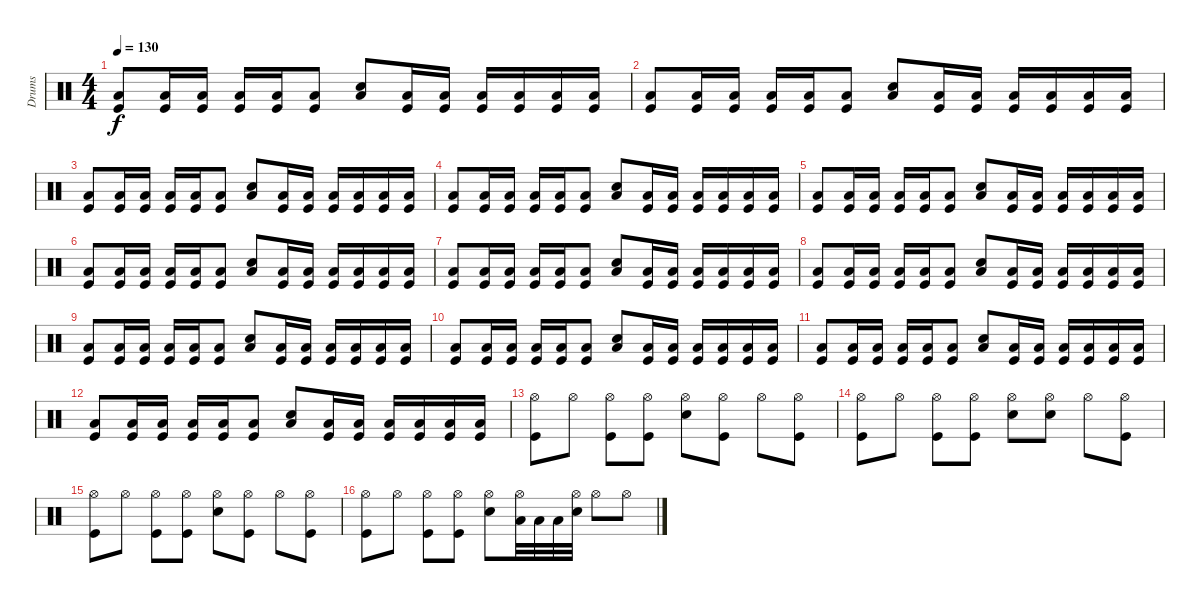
\track ("Drums" "Drums") {instrument percussion}
\staff {score}
\articulation defaults
\ts (4 4)
\tempo 130
\clef neutral
\ks c
("Low Floor Tom (hit)" "Kick (hit)").8{dy f} ("Low Floor Tom (hit)" "Kick (hit)").16 ("Low Floor Tom (hit)" "Kick (hit)").16 ("Low Floor Tom (hit)" "Kick (hit)").16 ("Low Floor Tom (hit)" "Kick (hit)").16 ("Low Floor Tom (hit)" "Kick (hit)").8 ("Low Floor Tom (hit)" "Snare (hit) 2").8 ("Low Floor Tom (hit)" "Kick (hit)").16 ("Low Floor Tom (hit)" "Kick (hit)").16 ("Low Floor Tom (hit)" "Kick (hit)").16 ("Low Floor Tom (hit)" "Kick (hit)").16 ("Low Floor Tom (hit)" "Kick (hit)").16 ("Low Floor Tom (hit)" "Kick (hit)").16 |
("Low Floor Tom (hit)" "Kick (hit)").8 ("Low Floor Tom (hit)" "Kick (hit)").16 ("Low Floor Tom (hit)" "Kick (hit)").16 ("Low Floor Tom (hit)" "Kick (hit)").16 ("Low Floor Tom (hit)" "Kick (hit)").16 ("Low Floor Tom (hit)" "Kick (hit)").8 ("Low Floor Tom (hit)" "Snare (hit) 2").8 ("Low Floor Tom (hit)" "Kick (hit)").16 ("Low Floor Tom (hit)" "Kick (hit)").16 ("Low Floor Tom (hit)" "Kick (hit)").16 ("Low Floor Tom (hit)" "Kick (hit)").16 ("Low Floor Tom (hit)" "Kick (hit)").16 ("Low Floor Tom (hit)" "Kick (hit)").16 |
("Low Floor Tom (hit)" "Kick (hit)").8 ("Low Floor Tom (hit)" "Kick (hit)").16 ("Low Floor Tom (hit)" "Kick (hit)").16 ("Low Floor Tom (hit)" "Kick (hit)").16 ("Low Floor Tom (hit)" "Kick (hit)").16 ("Low Floor Tom (hit)" "Kick (hit)").8 ("Low Floor Tom (hit)" "Snare (hit) 2").8 ("Low Floor Tom (hit)" "Kick (hit)").16 ("Low Floor Tom (hit)" "Kick (hit)").16 ("Low Floor Tom (hit)" "Kick (hit)").16 ("Low Floor Tom (hit)" "Kick (hit)").16 ("Low Floor Tom (hit)" "Kick (hit)").16 ("Low Floor Tom (hit)" "Kick (hit)").16 |
("Low Floor Tom (hit)" "Kick (hit)").8 ("Low Floor Tom (hit)" "Kick (hit)").16 ("Low Floor Tom (hit)" "Kick (hit)").16 ("Low Floor Tom (hit)" "Kick (hit)").16 ("Low Floor Tom (hit)" "Kick (hit)").16 ("Low Floor Tom (hit)" "Kick (hit)").8 ("Low Floor Tom (hit)" "Snare (hit) 2").8 ("Low Floor Tom (hit)" "Kick (hit)").16 ("Low Floor Tom (hit)" "Kick (hit)").16 ("Low Floor Tom (hit)" "Kick (hit)").16 ("Low Floor Tom (hit)" "Kick (hit)").16 ("Low Floor Tom (hit)" "Kick (hit)").16 ("Low Floor Tom (hit)" "Kick (hit)").16 |
("Low Floor Tom (hit)" "Kick (hit)").8 ("Low Floor Tom (hit)" "Kick (hit)").16 ("Low Floor Tom (hit)" "Kick (hit)").16 ("Low Floor Tom (hit)" "Kick (hit)").16 ("Low Floor Tom (hit)" "Kick (hit)").16 ("Low Floor Tom (hit)" "Kick (hit)").8 ("Low Floor Tom (hit)" "Snare (hit) 2").8 ("Low Floor Tom (hit)" "Kick (hit)").16 ("Low Floor Tom (hit)" "Kick (hit)").16 ("Low Floor Tom (hit)" "Kick (hit)").16 ("Low Floor Tom (hit)" "Kick (hit)").16 ("Low Floor Tom (hit)" "Kick (hit)").16 ("Low Floor Tom (hit)" "Kick (hit)").16 |
("Low Floor Tom (hit)" "Kick (hit)").8 ("Low Floor Tom (hit)" "Kick (hit)").16 ("Low Floor Tom (hit)" "Kick (hit)").16 ("Low Floor Tom (hit)" "Kick (hit)").16 ("Low Floor Tom (hit)" "Kick (hit)").16 ("Low Floor Tom (hit)" "Kick (hit)").8 ("Low Floor Tom (hit)" "Snare (hit) 2").8 ("Low Floor Tom (hit)" "Kick (hit)").16 ("Low Floor Tom (hit)" "Kick (hit)").16 ("Low Floor Tom (hit)" "Kick (hit)").16 ("Low Floor Tom (hit)" "Kick (hit)").16 ("Low Floor Tom (hit)" "Kick (hit)").16 ("Low Floor Tom (hit)" "Kick (hit)").16 |
("Low Floor Tom (hit)" "Kick (hit)").8 ("Low Floor Tom (hit)" "Kick (hit)").16 ("Low Floor Tom (hit)" "Kick (hit)").16 ("Low Floor Tom (hit)" "Kick (hit)").16 ("Low Floor Tom (hit)" "Kick (hit)").16 ("Low Floor Tom (hit)" "Kick (hit)").8 ("Low Floor Tom (hit)" "Snare (hit) 2").8 ("Low Floor Tom (hit)" "Kick (hit)").16 ("Low Floor Tom (hit)" "Kick (hit)").16 ("Low Floor Tom (hit)" "Kick (hit)").16 ("Low Floor Tom (hit)" "Kick (hit)").16 ("Low Floor Tom (hit)" "Kick (hit)").16 ("Low Floor Tom (hit)" "Kick (hit)").16 |
("Low Floor Tom (hit)" "Kick (hit)").8 ("Low Floor Tom (hit)" "Kick (hit)").16 ("Low Floor Tom (hit)" "Kick (hit)").16 ("Low Floor Tom (hit)" "Kick (hit)").16 ("Low Floor Tom (hit)" "Kick (hit)").16 ("Low Floor Tom (hit)" "Kick (hit)").8 ("Low Floor Tom (hit)" "Snare (hit) 2").8 ("Low Floor Tom (hit)" "Kick (hit)").16 ("Low Floor Tom (hit)" "Kick (hit)").16 ("Low Floor Tom (hit)" "Kick (hit)").16 ("Low Floor Tom (hit)" "Kick (hit)").16 ("Low Floor Tom (hit)" "Kick (hit)").16 ("Low Floor Tom (hit)" "Kick (hit)").16 |
("Low Floor Tom (hit)" "Kick (hit)").8 ("Low Floor Tom (hit)" "Kick (hit)").16 ("Low Floor Tom (hit)" "Kick (hit)").16 ("Low Floor Tom (hit)" "Kick (hit)").16 ("Low Floor Tom (hit)" "Kick (hit)").16 ("Low Floor Tom (hit)" "Kick (hit)").8 ("Low Floor Tom (hit)" "Snare (hit) 2").8 ("Low Floor Tom (hit)" "Kick (hit)").16 ("Low Floor Tom (hit)" "Kick (hit)").16 ("Low Floor Tom (hit)" "Kick (hit)").16 ("Low Floor Tom (hit)" "Kick (hit)").16 ("Low Floor Tom (hit)" "Kick (hit)").16 ("Low Floor Tom (hit)" "Kick (hit)").16 |
("Low Floor Tom (hit)" "Kick (hit)").8 ("Low Floor Tom (hit)" "Kick (hit)").16 ("Low Floor Tom (hit)" "Kick (hit)").16 ("Low Floor Tom (hit)" "Kick (hit)").16 ("Low Floor Tom (hit)" "Kick (hit)").16 ("Low Floor Tom (hit)" "Kick (hit)").8 ("Low Floor Tom (hit)" "Snare (hit) 2").8 ("Low Floor Tom (hit)" "Kick (hit)").16 ("Low Floor Tom (hit)" "Kick (hit)").16 ("Low Floor Tom (hit)" "Kick (hit)").16 ("Low Floor Tom (hit)" "Kick (hit)").16 ("Low Floor Tom (hit)" "Kick (hit)").16 ("Low Floor Tom (hit)" "Kick (hit)").16 |
("Low Floor Tom (hit)" "Kick (hit)").8 ("Low Floor Tom (hit)" "Kick (hit)").16 ("Low Floor Tom (hit)" "Kick (hit)").16 ("Low Floor Tom (hit)" "Kick (hit)").16 ("Low Floor Tom (hit)" "Kick (hit)").16 ("Low Floor Tom (hit)" "Kick (hit)").8 ("Low Floor Tom (hit)" "Snare (hit) 2").8 ("Low Floor Tom (hit)" "Kick (hit)").16 ("Low Floor Tom (hit)" "Kick (hit)").16 ("Low Floor Tom (hit)" "Kick (hit)").16 ("Low Floor Tom (hit)" "Kick (hit)").16 ("Low Floor Tom (hit)" "Kick (hit)").16 ("Low Floor Tom (hit)" "Kick (hit)").16 |
("Low Floor Tom (hit)" "Kick (hit)").8 ("Low Floor Tom (hit)" "Kick (hit)").16 ("Low Floor Tom (hit)" "Kick (hit)").16 ("Low Floor Tom (hit)" "Kick (hit)").16 ("Low Floor Tom (hit)" "Kick (hit)").16 ("Low Floor Tom (hit)" "Kick (hit)").8 ("Low Floor Tom (hit)" "Snare (hit) 2").8 ("Low Floor Tom (hit)" "Kick (hit)").16 ("Low Floor Tom (hit)" "Kick (hit)").16 ("Low Floor Tom (hit)" "Kick (hit)").16 ("Low Floor Tom (hit)" "Kick (hit)").16 ("Low Floor Tom (hit)" "Kick (hit)").16 ("Low Floor Tom (hit)" "Kick (hit)").16 |
("Hi-Hat (open)" "Kick (hit)").8 "Hi-Hat (open)".8 ("Hi-Hat (open)" "Kick (hit)").8 ("Hi-Hat (open)" "Kick (hit)").8 ("Hi-Hat (open)" "Snare (hit) 2").8 ("Hi-Hat (open)" "Kick (hit)").8 "Hi-Hat (open)".8 ("Hi-Hat (open)" "Kick (hit)").8 |
("Hi-Hat (open)" "Kick (hit)").8 "Hi-Hat (open)".8 ("Hi-Hat (open)" "Kick (hit)").8 ("Hi-Hat (open)" "Kick (hit)").8 ("Hi-Hat (open)" "Snare (hit) 2").8 ("Hi-Hat (open)" "Snare (hit) 2").8 "Hi-Hat (open)".8 ("Hi-Hat (open)" "Kick (hit)").8 |
("Hi-Hat (open)" "Kick (hit)").8 "Hi-Hat (open)".8 ("Hi-Hat (open)" "Kick (hit)").8 ("Hi-Hat (open)" "Kick (hit)").8 ("Hi-Hat (open)" "Snare (hit) 2").8 ("Hi-Hat (open)" "Kick (hit)").8 "Hi-Hat (open)".8 ("Hi-Hat (open)" "Kick (hit)").8 |
("Hi-Hat (open)" "Kick (hit)").8 "Hi-Hat (open)".8 ("Hi-Hat (open)" "Kick (hit)").8 ("Hi-Hat (open)" "Kick (hit)").8 ("Hi-Hat (open)" "Snare (hit) 2").8 ("Hi-Hat (open)" "Low Floor Tom (hit)").32 "Low Floor Tom (hit)".32 "Low Floor Tom (hit)".32 ("Hi-Hat (open)" "Snare (hit) 2").32 "Hi-Hat (open)".8 "Hi-Hat (open)".8
